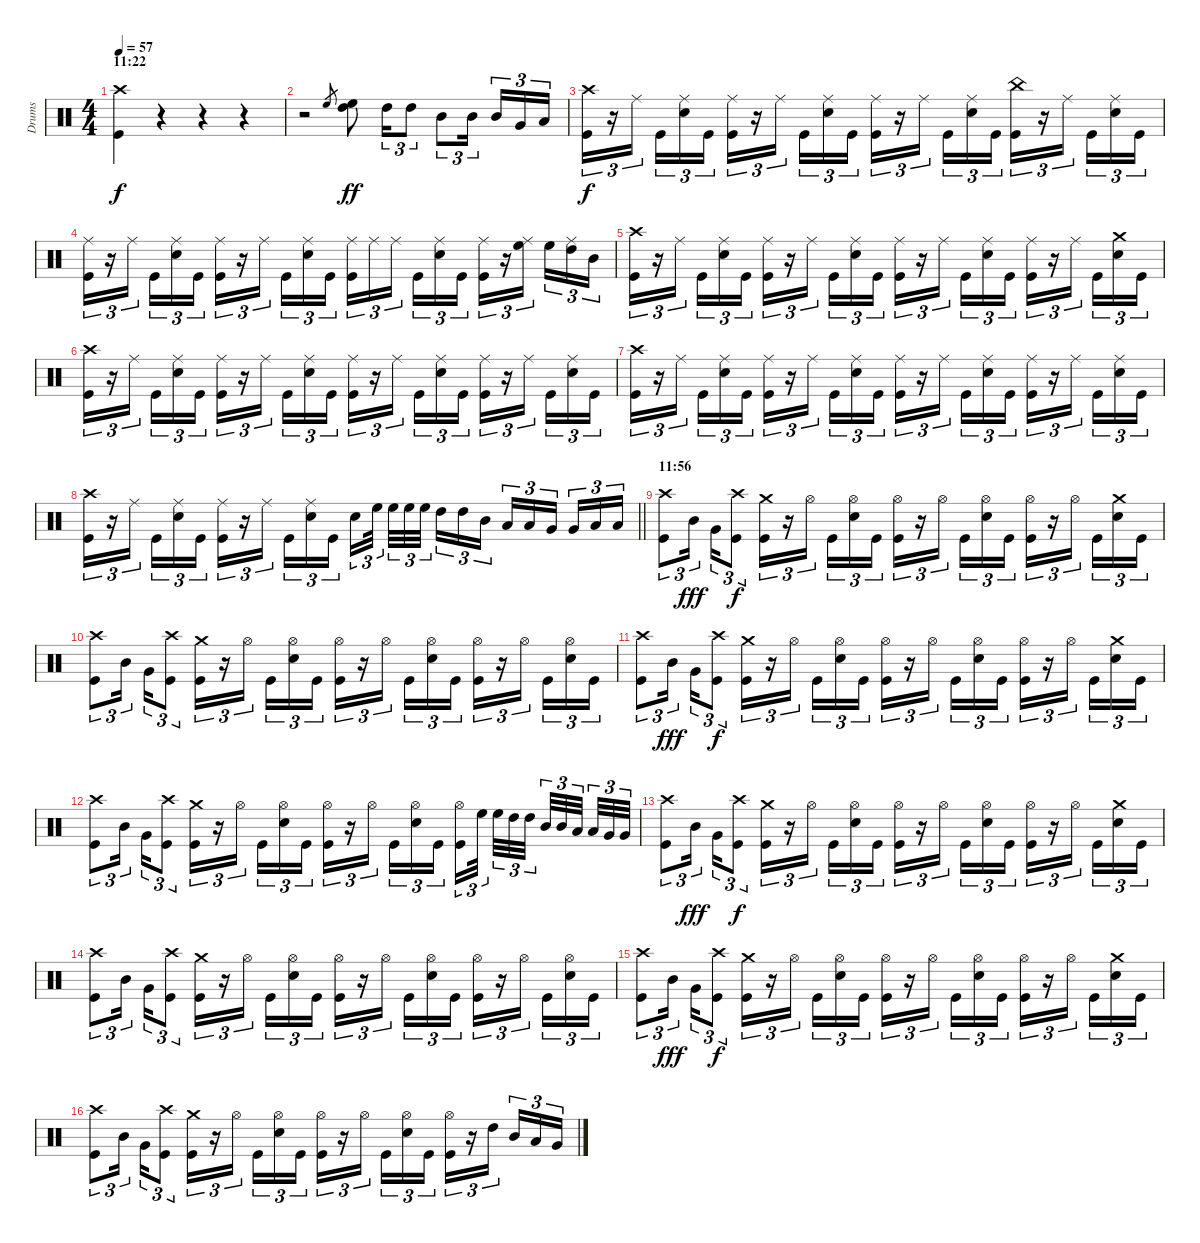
\track ("Drums" "Drums") {instrument percussion}
\staff {score}
\articulation defaults
\ts (4 4)
\section ("" "11:22")
\tempo 57
\clef neutral
\ks c
("Kick (hit)" "Crash high (hit)").4{dy f} r.4 r.4 r.4 |
r.2 "High Floor Tom (hit)".8{gr} ("High Tom (hit)" "High Floor Tom (hit)").8{dy ff} "High Tom (hit)".16{tu (3 2)} "High Tom (hit)".8{tu (3 2)} "Mid Tom (hit)".8{tu (3 2)} "Mid Tom (hit)".16{tu (3 2) beam splitsecondary} "Mid Tom (hit)".16{tu (3 2)} "Very Low Tom (hit)".16{tu (3 2)} "Low Floor Tom (hit)".16{tu (3 2)} |
("Crash high (hit)" "Kick (hit)").16{tu (3 2) dy f} r.16{tu (3 2)} "Ride (middle)".16{tu (3 2) beam splitsecondary} "Kick (hit)".16{tu (3 2)} ("Ride (middle)" "Snare (hit) 2").16{tu (3 2)} "Kick (hit)".16{tu (3 2)} ("Kick (hit)" "Ride (middle)").16{tu (3 2)} r.16{tu (3 2)} "Ride (middle)".16{tu (3 2) beam splitsecondary} "Kick (hit)".16{tu (3 2)} ("Snare (hit) 2" "Ride (middle)").16{tu (3 2)} "Kick (hit)".16{tu (3 2)} ("Kick (hit)" "Ride (middle)").16{tu (3 2)} r.16{tu (3 2)} "Ride (middle)".16{tu (3 2) beam splitsecondary} "Kick (hit)".16{tu (3 2)} ("Snare (hit) 2" "Ride (middle)").16{tu (3 2)} "Kick (hit)".16{tu (3 2)} ("Kick (hit)" "China (hit)").16{tu (3 2)} r.16{tu (3 2)} "Ride (middle)".16{tu (3 2) beam splitsecondary} "Kick (hit)".16{tu (3 2)} ("Snare (hit) 2" "Ride (middle)").16{tu (3 2)} "Kick (hit)".16{tu (3 2)} |
("Ride (middle)" "Kick (hit)").16{tu (3 2)} r.16{tu (3 2)} "Ride (middle)".16{tu (3 2) beam splitsecondary} "Kick (hit)".16{tu (3 2)} ("Ride (middle)" "Snare (hit) 2").16{tu (3 2)} "Kick (hit)".16{tu (3 2)} ("Kick (hit)" "Ride (middle)").16{tu (3 2)} r.16{tu (3 2)} "Ride (middle)".16{tu (3 2) beam splitsecondary} "Kick (hit)".16{tu (3 2)} ("Snare (hit) 2" "Ride (middle)").16{tu (3 2)} "Kick (hit)".16{tu (3 2)} ("Kick (hit)" "Ride (middle)").16{tu (3 2)} "Ride (middle)".16{tu (3 2)} "Ride (middle)".16{tu (3 2) beam splitsecondary} "Kick (hit)".16{tu (3 2)} ("Snare (hit) 2" "Ride (middle)").16{tu (3 2)} "Kick (hit)".16{tu (3 2)} ("Kick (hit)" "Ride (middle)").16{tu (3 2)} r.16{tu (3 2)} ("Ride (middle)" "High Floor Tom (hit)").16{tu (3 2) beam splitsecondary} "High Floor Tom (hit)".16{tu (3 2)} ("Ride (middle)" "High Tom (hit)").16{tu (3 2)} "Mid Tom (hit)".16{tu (3 2)} |
("Crash high (hit)" "Kick (hit)").16{tu (3 2)} r.16{tu (3 2)} "Ride (middle)".16{tu (3 2) beam splitsecondary} "Kick (hit)".16{tu (3 2)} ("Ride (middle)" "Snare (hit) 2").16{tu (3 2)} "Kick (hit)".16{tu (3 2)} ("Kick (hit)" "Ride (middle)").16{tu (3 2)} r.16{tu (3 2)} "Ride (middle)".16{tu (3 2) beam splitsecondary} "Kick (hit)".16{tu (3 2)} ("Snare (hit) 2" "Ride (middle)").16{tu (3 2)} "Kick (hit)".16{tu (3 2)} ("Kick (hit)" "Ride (middle)").16{tu (3 2)} r.16{tu (3 2)} "Ride (middle)".16{tu (3 2) beam splitsecondary} "Kick (hit)".16{tu (3 2)} ("Snare (hit) 2" "Ride (middle)").16{tu (3 2)} "Kick (hit)".16{tu (3 2)} ("Kick (hit)" "Ride (middle)").16{tu (3 2)} r.16{tu (3 2)} "Ride (middle)".16{tu (3 2) beam splitsecondary} "Kick (hit)".16{tu (3 2)} ("Snare (hit) 2" "Crash medium (hit)").16{tu (3 2)} "Kick (hit)".16{tu (3 2)} |
("Crash high (hit)" "Kick (hit)").16{tu (3 2)} r.16{tu (3 2)} "Ride (middle)".16{tu (3 2) beam splitsecondary} "Kick (hit)".16{tu (3 2)} ("Ride (middle)" "Snare (hit) 2").16{tu (3 2)} "Kick (hit)".16{tu (3 2)} ("Kick (hit)" "Ride (middle)").16{tu (3 2)} r.16{tu (3 2)} "Ride (middle)".16{tu (3 2) beam splitsecondary} "Kick (hit)".16{tu (3 2)} ("Snare (hit) 2" "Ride (middle)").16{tu (3 2)} "Kick (hit)".16{tu (3 2)} ("Kick (hit)" "Ride (middle)").16{tu (3 2)} r.16{tu (3 2)} "Ride (middle)".16{tu (3 2) beam splitsecondary} "Kick (hit)".16{tu (3 2)} ("Snare (hit) 2" "Ride (middle)").16{tu (3 2)} "Kick (hit)".16{tu (3 2)} ("Kick (hit)" "Ride (middle)").16{tu (3 2)} r.16{tu (3 2)} "Ride (middle)".16{tu (3 2) beam splitsecondary} "Kick (hit)".16{tu (3 2)} ("Snare (hit) 2" "Ride (middle)").16{tu (3 2)} "Kick (hit)".16{tu (3 2)} |
("Crash high (hit)" "Kick (hit)").16{tu (3 2)} r.16{tu (3 2)} "Ride (middle)".16{tu (3 2) beam splitsecondary} "Kick (hit)".16{tu (3 2)} ("Ride (middle)" "Snare (hit) 2").16{tu (3 2)} "Kick (hit)".16{tu (3 2)} ("Kick (hit)" "Ride (middle)").16{tu (3 2)} r.16{tu (3 2)} "Ride (middle)".16{tu (3 2) beam splitsecondary} "Kick (hit)".16{tu (3 2)} ("Snare (hit) 2" "Ride (middle)").16{tu (3 2)} "Kick (hit)".16{tu (3 2)} ("Kick (hit)" "Ride (middle)").16{tu (3 2)} r.16{tu (3 2)} "Ride (middle)".16{tu (3 2) beam splitsecondary} "Kick (hit)".16{tu (3 2)} ("Snare (hit) 2" "Ride (middle)").16{tu (3 2)} "Kick (hit)".16{tu (3 2)} ("Kick (hit)" "Ride (middle)").16{tu (3 2)} r.16{tu (3 2)} "Ride (middle)".16{tu (3 2) beam splitsecondary} "Kick (hit)".16{tu (3 2)} ("Snare (hit) 2" "Ride (middle)").16{tu (3 2)} "Kick (hit)".16{tu (3 2)} |
\barLineRight lightlight
("Crash high (hit)" "Kick (hit)").16{tu (3 2)} r.16{tu (3 2)} "Ride (middle)".16{tu (3 2) beam splitsecondary} "Kick (hit)".16{tu (3 2)} ("Ride (middle)" "Snare (hit) 2").16{tu (3 2)} "Kick (hit)".16{tu (3 2)} ("Kick (hit)" "Ride (middle)").16{tu (3 2)} r.16{tu (3 2)} "Ride (middle)".16{tu (3 2) beam splitsecondary} "Kick (hit)".16{tu (3 2)} ("Snare (hit) 2" "Ride (middle)").16{tu (3 2)} "Kick (hit)".16{tu (3 2)} "Snare (hit) 2".16{tu (3 2)} "High Floor Tom (hit)".32{tu (3 2) beam splitsecondary} "High Floor Tom (hit)".32{tu (3 2)} "High Floor Tom (hit)".32{tu (3 2)} "High Floor Tom (hit)".32{tu (3 2) beam splitsecondary} "High Tom (hit)".16{tu (3 2)} "High Tom (hit)".16{tu (3 2)} "Mid Tom (hit)".16{tu (3 2)} "Low Tom (hit)".16{tu (3 2)} "Low Tom (hit)".16{tu (3 2)} "Very Low Tom (hit)".16{tu (3 2) beam splitsecondary} "Very Low Tom (hit)".16{tu (3 2)} "Low Floor Tom (hit)".16{tu (3 2)} "Low Floor Tom (hit)".16{tu (3 2)} |
\section ("" "11:56")
("Crash high (hit)" "Kick (hit)").8{tu (3 2)} "Mid Tom (hit)".16{tu (3 2) dy fff beam splitsecondary} "Very Low Tom (hit)".16{tu (3 2)} ("Crash high (hit)" "Kick (hit)").8{tu (3 2) dy f} ("Kick (hit)" "Crash medium (hit)").16{tu (3 2)} r.16{tu (3 2)} "Hi-Hat (open)".16{tu (3 2) beam splitsecondary} "Kick (hit)".16{tu (3 2)} ("Snare (hit) 2" "Hi-Hat (open)").16{tu (3 2)} "Kick (hit)".16{tu (3 2)} ("Kick (hit)" "Hi-Hat (open)").16{tu (3 2)} r.16{tu (3 2)} "Hi-Hat (open)".16{tu (3 2) beam splitsecondary} "Kick (hit)".16{tu (3 2)} ("Snare (hit) 2" "Hi-Hat (open)").16{tu (3 2)} "Kick (hit)".16{tu (3 2)} ("Kick (hit)" "Hi-Hat (open)").16{tu (3 2)} r.16{tu (3 2)} "Hi-Hat (open)".16{tu (3 2) beam splitsecondary} "Kick (hit)".16{tu (3 2)} ("Snare (hit) 2" "Crash medium (hit)").16{tu (3 2)} "Kick (hit)".16{tu (3 2)} |
("Crash high (hit)" "Kick (hit)").8{tu (3 2)} "Mid Tom (hit)".16{tu (3 2) beam splitsecondary} "Very Low Tom (hit)".16{tu (3 2)} ("Crash high (hit)" "Kick (hit)").8{tu (3 2)} ("Kick (hit)" "Crash medium (hit)").16{tu (3 2)} r.16{tu (3 2)} "Hi-Hat (open)".16{tu (3 2) beam splitsecondary} "Kick (hit)".16{tu (3 2)} ("Snare (hit) 2" "Hi-Hat (open)").16{tu (3 2)} "Kick (hit)".16{tu (3 2)} ("Kick (hit)" "Hi-Hat (open)").16{tu (3 2)} r.16{tu (3 2)} "Hi-Hat (open)".16{tu (3 2) beam splitsecondary} "Kick (hit)".16{tu (3 2)} ("Snare (hit) 2" "Hi-Hat (open)").16{tu (3 2)} "Kick (hit)".16{tu (3 2)} ("Kick (hit)" "Hi-Hat (open)").16{tu (3 2)} r.16{tu (3 2)} "Hi-Hat (open)".16{tu (3 2) beam splitsecondary} "Kick (hit)".16{tu (3 2)} ("Snare (hit) 2" "Hi-Hat (open)").16{tu (3 2)} "Kick (hit)".16{tu (3 2)} |
("Crash high (hit)" "Kick (hit)").8{tu (3 2)} "Mid Tom (hit)".16{tu (3 2) dy fff beam splitsecondary} "Very Low Tom (hit)".16{tu (3 2)} ("Crash high (hit)" "Kick (hit)").8{tu (3 2) dy f} ("Kick (hit)" "Crash medium (hit)").16{tu (3 2)} r.16{tu (3 2)} "Hi-Hat (open)".16{tu (3 2) beam splitsecondary} "Kick (hit)".16{tu (3 2)} ("Snare (hit) 2" "Hi-Hat (open)").16{tu (3 2)} "Kick (hit)".16{tu (3 2)} ("Kick (hit)" "Hi-Hat (open)").16{tu (3 2)} r.16{tu (3 2)} "Hi-Hat (open)".16{tu (3 2) beam splitsecondary} "Kick (hit)".16{tu (3 2)} ("Snare (hit) 2" "Hi-Hat (open)").16{tu (3 2)} "Kick (hit)".16{tu (3 2)} ("Kick (hit)" "Hi-Hat (open)").16{tu (3 2)} r.16{tu (3 2)} "Hi-Hat (open)".16{tu (3 2) beam splitsecondary} "Kick (hit)".16{tu (3 2)} ("Snare (hit) 2" "Crash medium (hit)").16{tu (3 2)} "Kick (hit)".16{tu (3 2)} |
("Crash high (hit)" "Kick (hit)").8{tu (3 2)} "Mid Tom (hit)".16{tu (3 2) beam splitsecondary} "Very Low Tom (hit)".16{tu (3 2)} ("Crash high (hit)" "Kick (hit)").8{tu (3 2)} ("Kick (hit)" "Crash medium (hit)").16{tu (3 2)} r.16{tu (3 2)} "Hi-Hat (open)".16{tu (3 2) beam splitsecondary} "Kick (hit)".16{tu (3 2)} ("Snare (hit) 2" "Hi-Hat (open)").16{tu (3 2)} "Kick (hit)".16{tu (3 2)} ("Kick (hit)" "Hi-Hat (open)").16{tu (3 2)} r.16{tu (3 2)} "Hi-Hat (open)".16{tu (3 2) beam splitsecondary} "Kick (hit)".16{tu (3 2)} ("Snare (hit) 2" "Hi-Hat (open)").16{tu (3 2)} "Kick (hit)".16{tu (3 2)} ("Kick (hit)" "Hi-Hat (open)").16{tu (3 2)} "High Floor Tom (hit)".32{tu (3 2) beam splitsecondary} "High Floor Tom (hit)".32{tu (3 2)} "High Tom (hit)".32{tu (3 2)} "High Tom (hit)".32{tu (3 2) beam splitsecondary} "Mid Tom (hit)".32{tu (3 2)} "Mid Tom (hit)".32{tu (3 2)} "Low Tom (hit)".32{tu (3 2) beam splitsecondary} "Low Tom (hit)".32{tu (3 2)} "Very Low Tom (hit)".32{tu (3 2)} "Very Low Tom (hit)".32{tu (3 2)} |
("Crash high (hit)" "Kick (hit)").8{tu (3 2)} "Mid Tom (hit)".16{tu (3 2) dy fff beam splitsecondary} "Very Low Tom (hit)".16{tu (3 2)} ("Crash high (hit)" "Kick (hit)").8{tu (3 2) dy f} ("Kick (hit)" "Crash medium (hit)").16{tu (3 2)} r.16{tu (3 2)} "Hi-Hat (open)".16{tu (3 2) beam splitsecondary} "Kick (hit)".16{tu (3 2)} ("Snare (hit) 2" "Hi-Hat (open)").16{tu (3 2)} "Kick (hit)".16{tu (3 2)} ("Kick (hit)" "Hi-Hat (open)").16{tu (3 2)} r.16{tu (3 2)} "Hi-Hat (open)".16{tu (3 2) beam splitsecondary} "Kick (hit)".16{tu (3 2)} ("Snare (hit) 2" "Hi-Hat (open)").16{tu (3 2)} "Kick (hit)".16{tu (3 2)} ("Kick (hit)" "Hi-Hat (open)").16{tu (3 2)} r.16{tu (3 2)} "Hi-Hat (open)".16{tu (3 2) beam splitsecondary} "Kick (hit)".16{tu (3 2)} ("Snare (hit) 2" "Crash medium (hit)").16{tu (3 2)} "Kick (hit)".16{tu (3 2)} |
("Crash high (hit)" "Kick (hit)").8{tu (3 2)} "Mid Tom (hit)".16{tu (3 2) beam splitsecondary} "Very Low Tom (hit)".16{tu (3 2)} ("Crash high (hit)" "Kick (hit)").8{tu (3 2)} ("Kick (hit)" "Crash medium (hit)").16{tu (3 2)} r.16{tu (3 2)} "Hi-Hat (open)".16{tu (3 2) beam splitsecondary} "Kick (hit)".16{tu (3 2)} ("Snare (hit) 2" "Hi-Hat (open)").16{tu (3 2)} "Kick (hit)".16{tu (3 2)} ("Kick (hit)" "Hi-Hat (open)").16{tu (3 2)} r.16{tu (3 2)} "Hi-Hat (open)".16{tu (3 2) beam splitsecondary} "Kick (hit)".16{tu (3 2)} ("Snare (hit) 2" "Hi-Hat (open)").16{tu (3 2)} "Kick (hit)".16{tu (3 2)} ("Kick (hit)" "Hi-Hat (open)").16{tu (3 2)} r.16{tu (3 2)} "Hi-Hat (open)".16{tu (3 2) beam splitsecondary} "Kick (hit)".16{tu (3 2)} ("Snare (hit) 2" "Hi-Hat (open)").16{tu (3 2)} "Kick (hit)".16{tu (3 2)} |
("Crash high (hit)" "Kick (hit)").8{tu (3 2)} "Mid Tom (hit)".16{tu (3 2) dy fff beam splitsecondary} "Very Low Tom (hit)".16{tu (3 2)} ("Crash high (hit)" "Kick (hit)").8{tu (3 2) dy f} ("Kick (hit)" "Crash medium (hit)").16{tu (3 2)} r.16{tu (3 2)} "Hi-Hat (open)".16{tu (3 2) beam splitsecondary} "Kick (hit)".16{tu (3 2)} ("Snare (hit) 2" "Hi-Hat (open)").16{tu (3 2)} "Kick (hit)".16{tu (3 2)} ("Kick (hit)" "Hi-Hat (open)").16{tu (3 2)} r.16{tu (3 2)} "Hi-Hat (open)".16{tu (3 2) beam splitsecondary} "Kick (hit)".16{tu (3 2)} ("Snare (hit) 2" "Hi-Hat (open)").16{tu (3 2)} "Kick (hit)".16{tu (3 2)} ("Kick (hit)" "Hi-Hat (open)").16{tu (3 2)} r.16{tu (3 2)} "Hi-Hat (open)".16{tu (3 2) beam splitsecondary} "Kick (hit)".16{tu (3 2)} ("Snare (hit) 2" "Crash medium (hit)").16{tu (3 2)} "Kick (hit)".16{tu (3 2)} |
("Crash high (hit)" "Kick (hit)").8{tu (3 2)} "Mid Tom (hit)".16{tu (3 2) beam splitsecondary} "Very Low Tom (hit)".16{tu (3 2)} ("Crash high (hit)" "Kick (hit)").8{tu (3 2)} ("Kick (hit)" "Crash medium (hit)").16{tu (3 2)} r.16{tu (3 2)} "Hi-Hat (open)".16{tu (3 2) beam splitsecondary} "Kick (hit)".16{tu (3 2)} ("Snare (hit) 2" "Hi-Hat (open)").16{tu (3 2)} "Kick (hit)".16{tu (3 2)} ("Kick (hit)" "Hi-Hat (open)").16{tu (3 2)} r.16{tu (3 2)} "Hi-Hat (open)".16{tu (3 2) beam splitsecondary} "Kick (hit)".16{tu (3 2)} ("Snare (hit) 2" "Hi-Hat (open)").16{tu (3 2)} "Kick (hit)".16{tu (3 2)} ("Kick (hit)" "Hi-Hat (open)").16{tu (3 2)} r.16{tu (3 2)} "High Tom (hit)".16{tu (3 2) beam splitsecondary} "Mid Tom (hit)".16{tu (3 2)} "Low Tom (hit)".16{tu (3 2)} "Very Low Tom (hit)".16{tu (3 2)}
